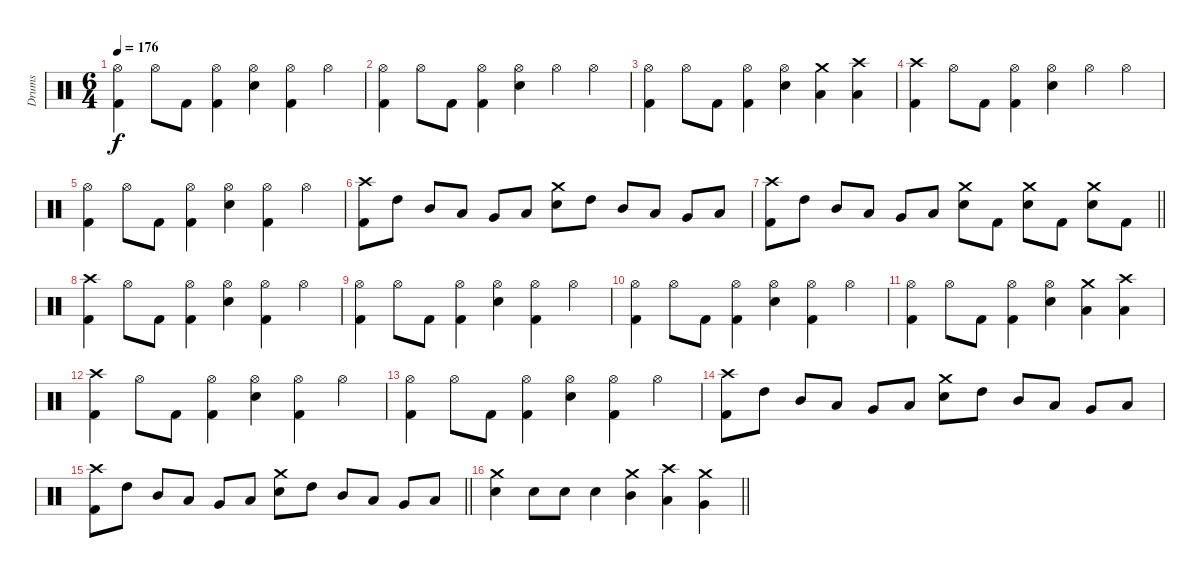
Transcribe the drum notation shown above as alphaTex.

\track ("Drums" "Drums") {instrument percussion}
\staff {score}
\articulation defaults
\ts (6 4)
\tempo 176
\clef neutral
\ks c
("Hi-Hat (open)" "Kick (hit) 2").4{dy f} "Hi-Hat (open)".8 "Kick (hit) 2".8 ("Hi-Hat (open)" "Kick (hit) 2").4 ("Hi-Hat (open)" "Snare (hit) 2").4 ("Hi-Hat (open)" "Kick (hit) 2").4 "Hi-Hat (open)".4 |
("Hi-Hat (open)" "Kick (hit) 2").4 "Hi-Hat (open)".8 "Kick (hit) 2".8 ("Hi-Hat (open)" "Kick (hit) 2").4 ("Hi-Hat (open)" "Snare (hit) 2").4 "Hi-Hat (open)".4 "Hi-Hat (open)".4 |
("Hi-Hat (open)" "Kick (hit) 2").4 "Hi-Hat (open)".8 "Kick (hit) 2".8 ("Hi-Hat (open)" "Kick (hit) 2").4 ("Hi-Hat (open)" "Snare (hit) 2").4 ("Crash medium (hit)" "Low Tom (hit)").4 ("Crash high (hit)" "Low Floor Tom (hit)").4 |
("Crash high (hit)" "Kick (hit) 2").4 "Hi-Hat (open)".8 "Kick (hit) 2".8 ("Hi-Hat (open)" "Kick (hit) 2").4 ("Hi-Hat (open)" "Snare (hit) 2").4 "Hi-Hat (open)".4 "Hi-Hat (open)".4 |
("Hi-Hat (open)" "Kick (hit) 2").4 "Hi-Hat (open)".8 "Kick (hit) 2".8 ("Hi-Hat (open)" "Kick (hit) 2").4 ("Hi-Hat (open)" "Snare (hit) 2").4 ("Hi-Hat (open)" "Kick (hit) 2").4 "Hi-Hat (open)".4 |
("Crash high (hit)" "Kick (hit) 2").8 "High Tom (hit)".8 "Mid Tom (hit)".8 "Low Tom (hit)".8 "Very Low Tom (hit)".8 "Low Floor Tom (hit)".8 ("Crash medium (hit)" "Snare (hit) 2").8 "High Tom (hit)".8 "Mid Tom (hit)".8 "Low Tom (hit)".8 "Very Low Tom (hit)".8 "Low Floor Tom (hit)".8 |
\barLineRight lightlight
("Crash high (hit)" "Kick (hit) 2").8 "High Tom (hit)".8 "Mid Tom (hit)".8 "Low Tom (hit)".8 "Very Low Tom (hit)".8 "Low Floor Tom (hit)".8 ("Crash medium (hit)" "Snare (hit) 2").8 "Kick (hit) 2".8 ("Crash medium (hit)" "Snare (hit) 2").8 "Kick (hit) 2".8 ("Crash medium (hit)" "Snare (hit) 2").8 "Kick (hit) 2".8 |
\section ("" "")
("Crash high (hit)" "Kick (hit) 2").4 "Hi-Hat (open)".8 "Kick (hit) 2".8 ("Hi-Hat (open)" "Kick (hit) 2").4 ("Hi-Hat (open)" "Snare (hit) 2").4 ("Hi-Hat (open)" "Kick (hit) 2").4 "Hi-Hat (open)".4 |
("Hi-Hat (open)" "Kick (hit) 2").4 "Hi-Hat (open)".8 "Kick (hit) 2".8 ("Hi-Hat (open)" "Kick (hit) 2").4 ("Hi-Hat (open)" "Snare (hit) 2").4 ("Hi-Hat (open)" "Kick (hit) 2").4 "Hi-Hat (open)".4 |
("Hi-Hat (open)" "Kick (hit) 2").4 "Hi-Hat (open)".8 "Kick (hit) 2".8 ("Hi-Hat (open)" "Kick (hit) 2").4 ("Hi-Hat (open)" "Snare (hit) 2").4 ("Hi-Hat (open)" "Kick (hit) 2").4 "Hi-Hat (open)".4 |
("Hi-Hat (open)" "Kick (hit) 2").4 "Hi-Hat (open)".8 "Kick (hit) 2".8 ("Hi-Hat (open)" "Kick (hit) 2").4 ("Hi-Hat (open)" "Snare (hit) 2").4 ("Crash medium (hit)" "Low Tom (hit)").4 ("Crash high (hit)" "Low Floor Tom (hit)").4 |
("Crash high (hit)" "Kick (hit) 2").4 "Hi-Hat (open)".8 "Kick (hit) 2".8 ("Hi-Hat (open)" "Kick (hit) 2").4 ("Hi-Hat (open)" "Snare (hit) 2").4 ("Hi-Hat (open)" "Kick (hit) 2").4 "Hi-Hat (open)".4 |
("Hi-Hat (open)" "Kick (hit) 2").4 "Hi-Hat (open)".8 "Kick (hit) 2".8 ("Hi-Hat (open)" "Kick (hit) 2").4 ("Hi-Hat (open)" "Snare (hit) 2").4 ("Hi-Hat (open)" "Kick (hit) 2").4 "Hi-Hat (open)".4 |
("Crash high (hit)" "Kick (hit) 2").8 "High Tom (hit)".8 "Mid Tom (hit)".8 "Low Tom (hit)".8 "Very Low Tom (hit)".8 "Low Floor Tom (hit)".8 ("Crash medium (hit)" "Snare (hit) 2").8 "High Tom (hit)".8 "Mid Tom (hit)".8 "Low Tom (hit)".8 "Very Low Tom (hit)".8 "Low Floor Tom (hit)".8 |
\barLineRight lightlight
("Crash high (hit)" "Kick (hit) 2").8 "High Tom (hit)".8 "Mid Tom (hit)".8 "Low Tom (hit)".8 "Very Low Tom (hit)".8 "Low Floor Tom (hit)".8 ("Crash medium (hit)" "Snare (hit) 2").8 "High Tom (hit)".8 "Mid Tom (hit)".8 "Low Tom (hit)".8 "Very Low Tom (hit)".8 "Low Floor Tom (hit)".8 |
\barLineRight lightlight
("Crash medium (hit)" "Snare (hit) 2").4 "Snare (hit) 2".8 "Snare (hit) 2".8 "Snare (hit) 2".4 ("Crash medium (hit)" "Mid Tom (hit)").4 ("Crash high (hit)" "Low Tom (hit)").4 ("Crash medium (hit)" "Very Low Tom (hit)").4
